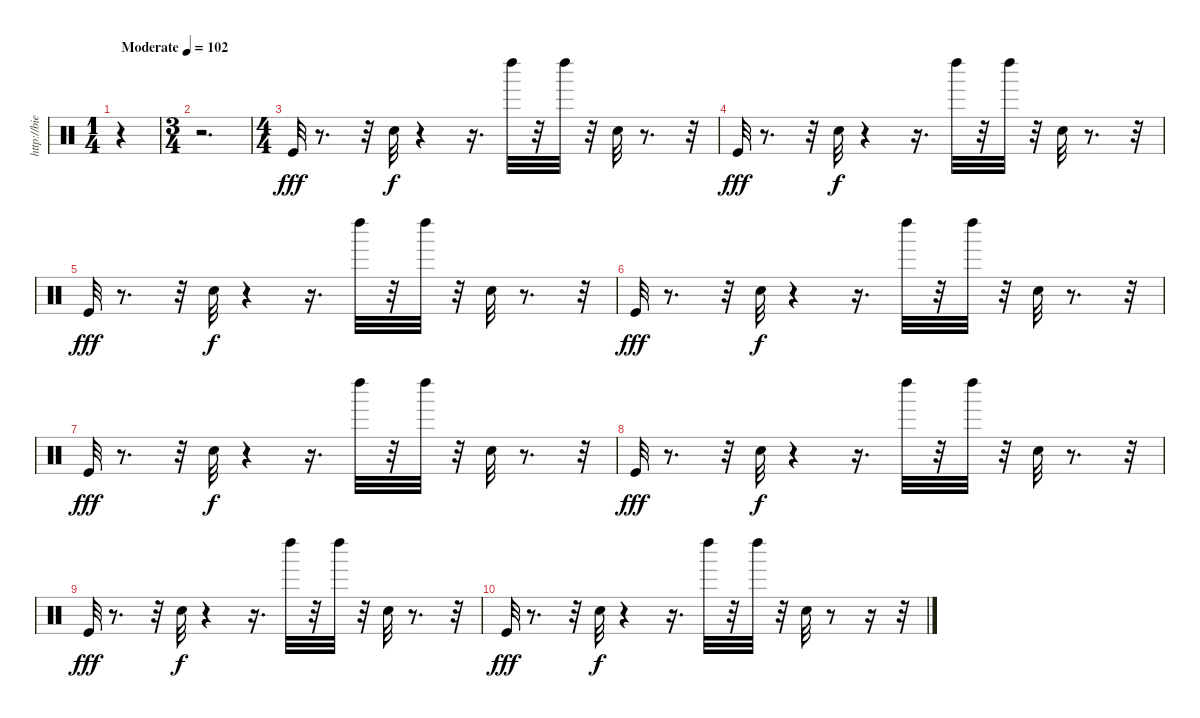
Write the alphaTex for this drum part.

\track ("http://bieberfevernews.ucoz.com" "http://bie") {instrument percussion}
\staff {score}
\articulation defaults
\ts (1 4)
\tempo (102 "Moderate")
\clef neutral
\ks c
r.4{dy fff} |
\ts (3 4)
r.2{d} |
\ts (4 4)
"Kick (hit)".32 r.8{d} r.32 "Snare (hit) 2".32{dy f} r.4 r.16{d} "Left Maraca (hit)".32 r.32 "Left Maraca (hit)".32 r.32 "Snare (hit) 2".32 r.8{d} r.32 |
"Kick (hit)".32{dy fff} r.8{d} r.32 "Snare (hit) 2".32{dy f} r.4 r.16{d} "Left Maraca (hit)".32 r.32 "Left Maraca (hit)".32 r.32 "Snare (hit) 2".32 r.8{d} r.32 |
"Kick (hit)".32{dy fff} r.8{d} r.32 "Snare (hit) 2".32{dy f} r.4 r.16{d} "Left Maraca (hit)".32 r.32 "Left Maraca (hit)".32 r.32 "Snare (hit) 2".32 r.8{d} r.32 |
"Kick (hit)".32{dy fff} r.8{d} r.32 "Snare (hit) 2".32{dy f} r.4 r.16{d} "Left Maraca (hit)".32 r.32 "Left Maraca (hit)".32 r.32 "Snare (hit) 2".32 r.8{d} r.32 |
"Kick (hit)".32{dy fff} r.8{d} r.32 "Snare (hit) 2".32{dy f} r.4 r.16{d} "Left Maraca (hit)".32 r.32 "Left Maraca (hit)".32 r.32 "Snare (hit) 2".32 r.8{d} r.32 |
"Kick (hit)".32{dy fff} r.8{d} r.32 "Snare (hit) 2".32{dy f} r.4 r.16{d} "Left Maraca (hit)".32 r.32 "Left Maraca (hit)".32 r.32 "Snare (hit) 2".32 r.8{d} r.32 |
"Kick (hit)".32{dy fff} r.8{d} r.32 "Snare (hit) 2".32{dy f} r.4 r.16{d} "Left Maraca (hit)".32 r.32 "Left Maraca (hit)".32 r.32 "Snare (hit) 2".32 r.8{d} r.32 |
"Kick (hit)".32{dy fff} r.8{d} r.32 "Snare (hit) 2".32{dy f} r.4 r.16{d} "Left Maraca (hit)".32 r.32 "Left Maraca (hit)".32 r.32 "Snare (hit) 2".32 r.8 r.16 r.32
